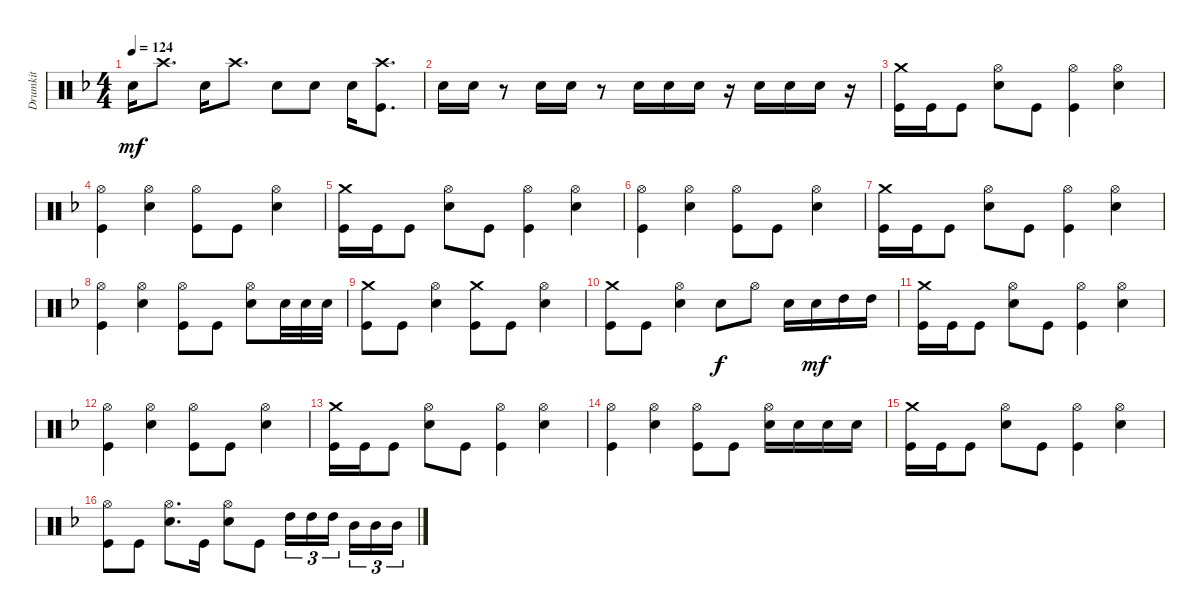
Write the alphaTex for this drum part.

\track ("Drumkit" "Drumkit") {instrument percussion}
\staff {score}
\articulation defaults
\ts (4 4)
\tempo 124
\clef neutral
\ks dminor "Snare (hit) 2".16{dy mf} "Crash high (hit)".8{d} "Snare (hit) 2".16 "Crash high (hit)".8{d} "Snare (hit) 2".8 "Snare (hit) 2".8 "Snare (hit) 2".16
("Kick (hit)" "Crash high (hit)").8{d} |
"Snare (hit) 2".16 "Snare (hit) 2".16 r.8 "Snare (hit) 2".16 "Snare (hit) 2".16 r.8 "Snare (hit) 2".16 "Snare (hit) 2".16 "Snare (hit) 2".16 r.16 "Snare (hit) 2".16 "Snare (hit) 2".16 "Snare (hit) 2".16 r.16 |
("Kick (hit)" "Crash medium (hit)").16 "Kick (hit)".16 "Kick (hit)".8 ("Snare (hit) 2" "Hi-Hat (open)").8 "Kick (hit)".8 ("Kick (hit)" "Hi-Hat (open)").4 ("Snare (hit) 2" "Hi-Hat (open)").4 |
("Hi-Hat (open)" "Kick (hit)").4 ("Hi-Hat (open)" "Snare (hit) 2").4 ("Kick (hit)" "Hi-Hat (open)").8 "Kick (hit)".8 ("Snare (hit) 2" "Hi-Hat (open)").4 |
("Kick (hit)" "Crash medium (hit)").16 "Kick (hit)".16 "Kick (hit)".8 ("Snare (hit) 2" "Hi-Hat (open)").8 "Kick (hit)".8 ("Kick (hit)" "Hi-Hat (open)").4 ("Snare (hit) 2" "Hi-Hat (open)").4 |
("Hi-Hat (open)" "Kick (hit)").4 ("Hi-Hat (open)" "Snare (hit) 2").4 ("Kick (hit)" "Hi-Hat (open)").8 "Kick (hit)".8 ("Snare (hit) 2" "Hi-Hat (open)").4 |
("Kick (hit)" "Crash medium (hit)").16 "Kick (hit)".16 "Kick (hit)".8 ("Snare (hit) 2" "Hi-Hat (open)").8 "Kick (hit)".8 ("Kick (hit)" "Hi-Hat (open)").4 ("Snare (hit) 2" "Hi-Hat (open)").4 |
("Hi-Hat (open)" "Kick (hit)").4 ("Hi-Hat (open)" "Snare (hit) 2").4 ("Kick (hit)" "Hi-Hat (open)").8 "Kick (hit)".8 ("Snare (hit) 2" "Hi-Hat (open)").8 "Snare (hit) 2".32 "Snare (hit) 2".32 "Snare (hit) 2".32 |
("Kick (hit)" "Crash medium (hit)").8 "Kick (hit)".8 ("Snare (hit) 2" "Hi-Hat (open)").4 ("Kick (hit)" "Crash medium (hit)").8 "Kick (hit)".8 ("Snare (hit) 2" "Hi-Hat (open)").4 |
("Kick (hit)" "Crash medium (hit)").8 "Kick (hit)".8 ("Snare (hit) 2" "Hi-Hat (open)").4 "Snare (hit) 2".8{dy f} "Hi-Hat (open)".8 "Snare (hit) 2".16 "Snare (hit) 2".16{dy mf} "High Tom (hit)".16 "High Tom (hit)".16 |
("Kick (hit)" "Crash medium (hit)").16 "Kick (hit)".16 "Kick (hit)".8 ("Snare (hit) 2" "Hi-Hat (open)").8 "Kick (hit)".8 ("Kick (hit)" "Hi-Hat (open)").4 ("Snare (hit) 2" "Hi-Hat (open)").4 |
("Hi-Hat (open)" "Kick (hit)").4 ("Hi-Hat (open)" "Snare (hit) 2").4 ("Kick (hit)" "Hi-Hat (open)").8 "Kick (hit)".8 ("Snare (hit) 2" "Hi-Hat (open)").4 |
("Kick (hit)" "Crash medium (hit)").16 "Kick (hit)".16 "Kick (hit)".8 ("Snare (hit) 2" "Hi-Hat (open)").8 "Kick (hit)".8 ("Kick (hit)" "Hi-Hat (open)").4 ("Snare (hit) 2" "Hi-Hat (open)").4 |
("Hi-Hat (open)" "Kick (hit)").4 ("Hi-Hat (open)" "Snare (hit) 2").4 ("Kick (hit)" "Hi-Hat (open)").8 "Kick (hit)".8 ("Snare (hit) 2" "Hi-Hat (open)").16 "Snare (hit) 2".16 "Snare (hit) 2".16 "Snare (hit) 2".16 |
("Kick (hit)" "Crash medium (hit)").16 "Kick (hit)".16 "Kick (hit)".8 ("Snare (hit) 2" "Hi-Hat (open)").8 "Kick (hit)".8 ("Kick (hit)" "Hi-Hat (open)").4 ("Snare (hit) 2" "Hi-Hat (open)").4 |
("Kick (hit)" "Hi-Hat (open)").8 "Kick (hit)".8 ("Hi-Hat (open)" "Snare (hit) 2").8{d} "Kick (hit)".16 ("Snare (hit) 2" "Hi-Hat (open)").8 "Kick (hit)".8 "High Tom (hit)".16{tu (3 2)} "High Tom (hit)".16{tu (3 2)} "High Tom (hit)".16{tu (3 2) beam splitsecondary} "Mid Tom (hit)".16{tu (3 2)} "Mid Tom (hit)".16{tu (3 2)} "Mid Tom (hit)".16{tu (3 2)}
